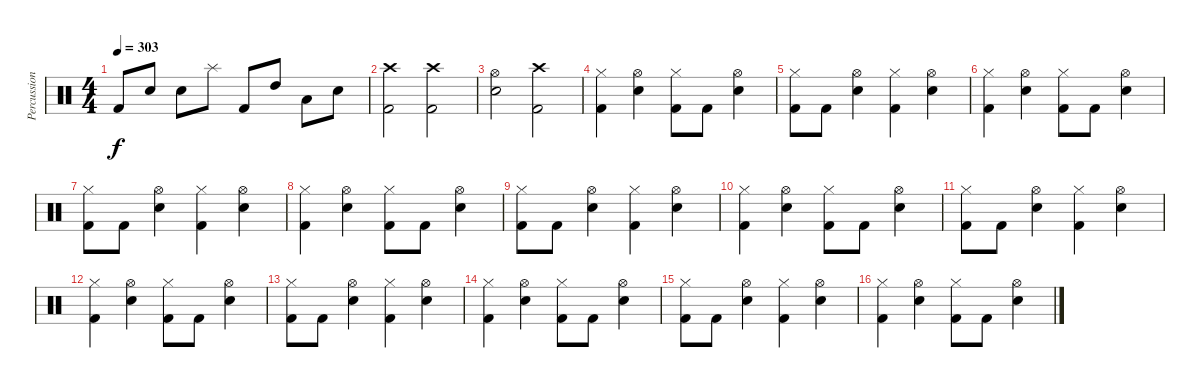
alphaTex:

\track ("Percussions" "Percussion") {instrument percussion}
\staff {score}
\articulation defaults
\ts (4 4)
\tempo 303
\clef neutral
\ks c "Kick (hit) 2".8{dy f} "Electric Snare (hit)".8 "Electric Snare (hit)".8 "Splash (hit)".8 "Kick (hit) 2".8 "High Tom (hit)".8 "Low Tom (hit)".8 "Electric Snare (hit)".8
|
("Crash high (hit)" "Kick (hit) 2").2 ("Crash high (hit)" "Kick (hit) 2").2 |
("Hi-Hat (open)" "Electric Snare (hit)").2 ("Crash high (hit)" "Kick (hit) 2").2 |
("Hi-Hat (closed)" "Kick (hit) 2").4 ("Hi-Hat (open)" "Electric Snare (hit)").4 ("Hi-Hat (closed)" "Kick (hit) 2").8 "Kick (hit) 2".8 ("Hi-Hat (open)" "Electric Snare (hit)").4 |
("Hi-Hat (closed)" "Kick (hit) 2").8 "Kick (hit) 2".8 ("Hi-Hat (open)" "Electric Snare (hit)").4 ("Hi-Hat (closed)" "Kick (hit) 2").4 ("Hi-Hat (open)" "Electric Snare (hit)").4 |
("Hi-Hat (closed)" "Kick (hit) 2").4 ("Hi-Hat (open)" "Electric Snare (hit)").4 ("Hi-Hat (closed)" "Kick (hit) 2").8 "Kick (hit) 2".8 ("Hi-Hat (open)" "Electric Snare (hit)").4 |
("Hi-Hat (closed)" "Kick (hit) 2").8 "Kick (hit) 2".8 ("Hi-Hat (open)" "Electric Snare (hit)").4 ("Hi-Hat (closed)" "Kick (hit) 2").4 ("Hi-Hat (open)" "Electric Snare (hit)").4 |
("Hi-Hat (closed)" "Kick (hit) 2").4 ("Hi-Hat (open)" "Electric Snare (hit)").4 ("Hi-Hat (closed)" "Kick (hit) 2").8 "Kick (hit) 2".8 ("Hi-Hat (open)" "Electric Snare (hit)").4 |
("Hi-Hat (closed)" "Kick (hit) 2").8 "Kick (hit) 2".8 ("Hi-Hat (open)" "Electric Snare (hit)").4 ("Hi-Hat (closed)" "Kick (hit) 2").4 ("Hi-Hat (open)" "Electric Snare (hit)").4 |
("Hi-Hat (closed)" "Kick (hit) 2").4 ("Hi-Hat (open)" "Electric Snare (hit)").4 ("Hi-Hat (closed)" "Kick (hit) 2").8 "Kick (hit) 2".8 ("Hi-Hat (open)" "Electric Snare (hit)").4 |
("Hi-Hat (closed)" "Kick (hit) 2").8 "Kick (hit) 2".8 ("Hi-Hat (open)" "Electric Snare (hit)").4 ("Hi-Hat (closed)" "Kick (hit) 2").4 ("Hi-Hat (open)" "Electric Snare (hit)").4 |
("Hi-Hat (closed)" "Kick (hit) 2").4 ("Hi-Hat (open)" "Electric Snare (hit)").4 ("Hi-Hat (closed)" "Kick (hit) 2").8 "Kick (hit) 2".8 ("Hi-Hat (open)" "Electric Snare (hit)").4 |
("Hi-Hat (closed)" "Kick (hit) 2").8 "Kick (hit) 2".8 ("Hi-Hat (open)" "Electric Snare (hit)").4 ("Hi-Hat (closed)" "Kick (hit) 2").4 ("Hi-Hat (open)" "Electric Snare (hit)").4 |
("Hi-Hat (closed)" "Kick (hit) 2").4 ("Hi-Hat (open)" "Electric Snare (hit)").4 ("Hi-Hat (closed)" "Kick (hit) 2").8 "Kick (hit) 2".8 ("Hi-Hat (open)" "Electric Snare (hit)").4 |
("Hi-Hat (closed)" "Kick (hit) 2").8 "Kick (hit) 2".8 ("Hi-Hat (open)" "Electric Snare (hit)").4 ("Hi-Hat (closed)" "Kick (hit) 2").4 ("Hi-Hat (open)" "Electric Snare (hit)").4 |
("Hi-Hat (closed)" "Kick (hit) 2").4 ("Hi-Hat (open)" "Electric Snare (hit)").4 ("Hi-Hat (closed)" "Kick (hit) 2").8 "Kick (hit) 2".8 ("Hi-Hat (open)" "Electric Snare (hit)").4
